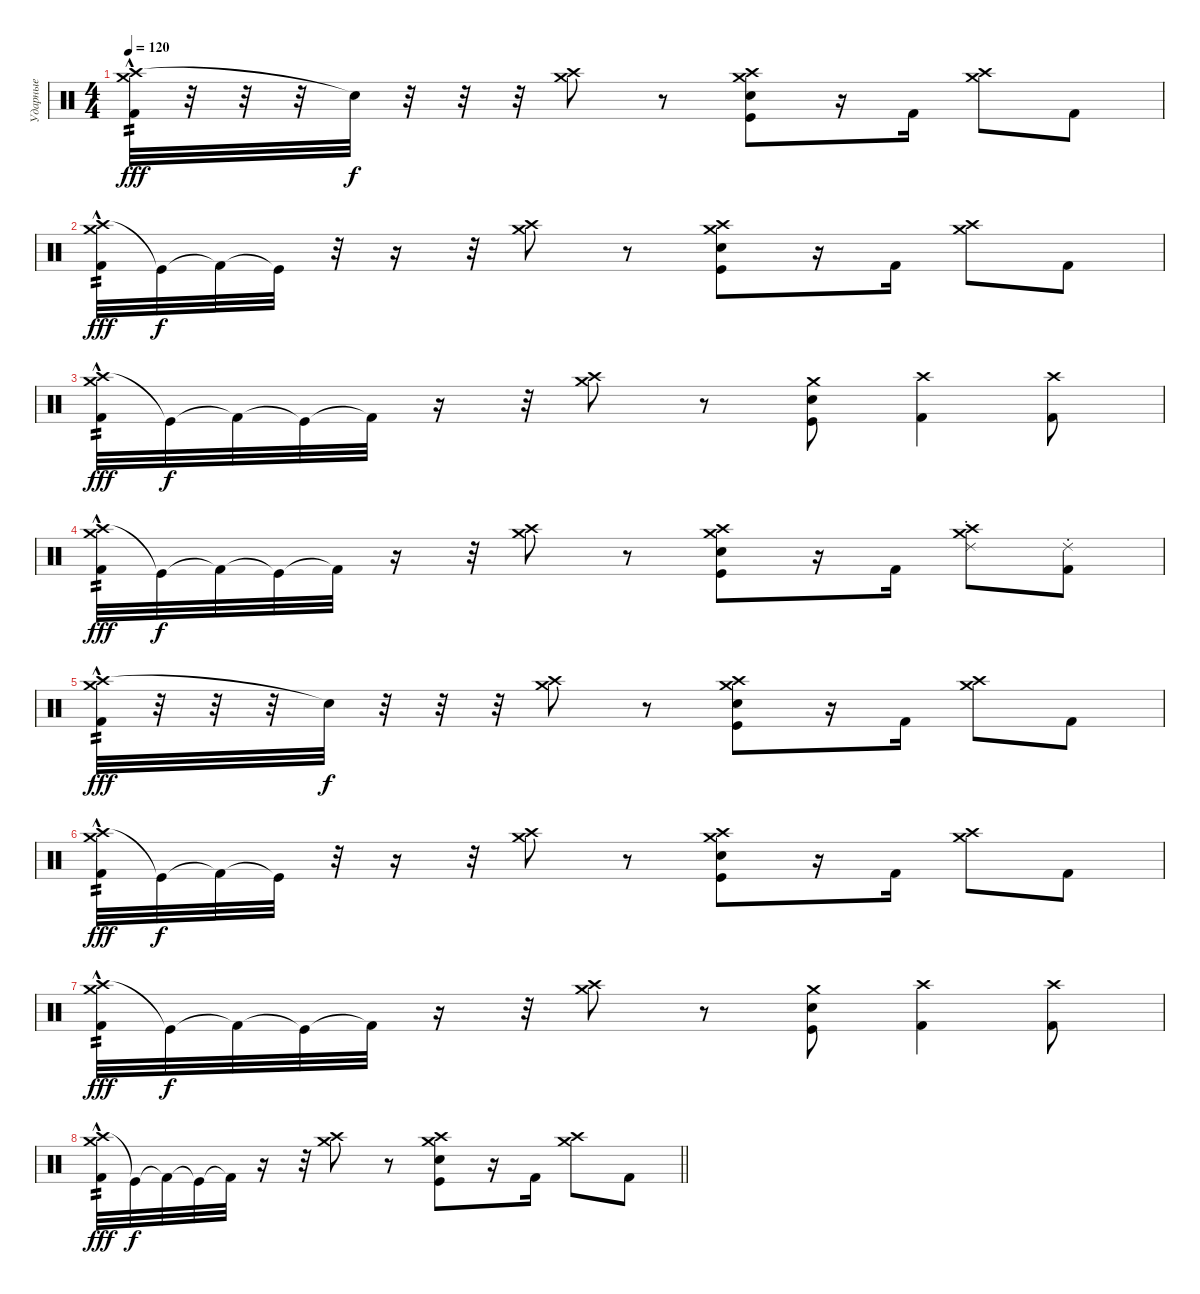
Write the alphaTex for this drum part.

\track ("Ударные" "Ударные") {instrument percussion}
\staff {score}
\articulation defaults
\ts (4 4)
\tempo 120
\clef neutral
\ks c
("Crash high (hit)"{hac} "Crash medium (hit)" "Kick (hit) 2").32{tp 2 dy fff} r.32 r.32 r.32 "Snare (hit)"{t}.32{dy f} r.32 r.32 r.32 ("Crash high (hit)" "Crash medium (hit)").8 r.8 ("Crash high (hit)" "Crash medium (hit)" "Electric Snare (hit)" "Kick (hit)").8 r.16 "Kick (hit) 2".16 ("Crash high (hit)" "Crash medium (hit)").8 "Kick (hit) 2".8 |
("Crash high (hit)"{hac} "Crash medium (hit)" "Kick (hit) 2").32{tp 2 dy fff} "Kick (hit)"{t}.32{dy f} "Kick (hit) 2"{t}.32 "Kick (hit)"{t}.32 r.32 r.16 r.32 ("Crash high (hit)" "Crash medium (hit)").8 r.8 ("Crash medium (hit)" "Crash high (hit)" "Electric Snare (hit)" "Kick (hit)").8 r.16 "Kick (hit) 2".16 ("Crash medium (hit)" "Crash high (hit)").8 "Kick (hit) 2".8 |
("Crash high (hit)"{hac} "Crash medium (hit)" "Kick (hit) 2").32{tp 2 dy fff} "Kick (hit)"{t}.32{dy f} "Kick (hit) 2"{t}.32 "Kick (hit)"{t}.32 "Kick (hit) 2"{t}.32 r.16 r.32 ("Crash medium (hit)" "Crash high (hit)").8 r.8 ("Crash medium (hit)" "Electric Snare (hit)" "Kick (hit)").8 ("Crash high (hit)" "Kick (hit) 2").4 ("Crash high (hit)" "Kick (hit) 2").8 |
("Crash high (hit)"{hac} "Crash medium (hit)" "Kick (hit) 2").32{tp 2 dy fff} "Kick (hit)"{t}.32{dy f} "Kick (hit) 2"{t}.32 "Kick (hit)"{t}.32 "Kick (hit) 2"{t}.32 r.16 r.32 ("Crash high (hit)" "Crash medium (hit)").8 r.8 ("Crash high (hit)" "Crash medium (hit)" "Electric Snare (hit)" "Kick (hit)").8 r.16 "Kick (hit) 2".16 ("Crash high (hit)" "Crash medium (hit)" "Ride (choke) 2").8 ("Ride (choke) 2" "Kick (hit) 2").8 |
("Crash high (hit)"{hac} "Crash medium (hit)" "Kick (hit) 2").32{tp 2 dy fff} r.32 r.32 r.32 "Snare (hit)"{t}.32{dy f} r.32 r.32 r.32 ("Crash high (hit)" "Crash medium (hit)").8 r.8 ("Crash high (hit)" "Crash medium (hit)" "Electric Snare (hit)" "Kick (hit)").8 r.16 "Kick (hit) 2".16 ("Crash high (hit)" "Crash medium (hit)").8 "Kick (hit) 2".8 |
("Crash high (hit)"{hac} "Crash medium (hit)" "Kick (hit) 2").32{tp 2 dy fff} "Kick (hit)"{t}.32{dy f} "Kick (hit) 2"{t}.32 "Kick (hit)"{t}.32 r.32 r.16 r.32 ("Crash high (hit)" "Crash medium (hit)").8 r.8 ("Crash medium (hit)" "Crash high (hit)" "Electric Snare (hit)" "Kick (hit)").8 r.16 "Kick (hit) 2".16 ("Crash medium (hit)" "Crash high (hit)").8 "Kick (hit) 2".8 |
("Crash high (hit)"{hac} "Crash medium (hit)" "Kick (hit) 2").32{tp 2 dy fff} "Kick (hit)"{t}.32{dy f} "Kick (hit) 2"{t}.32 "Kick (hit)"{t}.32 "Kick (hit) 2"{t}.32 r.16 r.32 ("Crash medium (hit)" "Crash high (hit)").8 r.8 ("Crash medium (hit)" "Electric Snare (hit)" "Kick (hit)").8 ("Crash high (hit)" "Kick (hit) 2").4 ("Crash high (hit)" "Kick (hit) 2").8 |
\barLineRight lightlight
("Crash high (hit)"{hac} "Crash medium (hit)" "Kick (hit) 2").32{tp 2 dy fff} "Kick (hit)"{t}.32{dy f} "Kick (hit) 2"{t}.32 "Kick (hit)"{t}.32 "Kick (hit) 2"{t}.32 r.16 r.32 ("Crash high (hit)" "Crash medium (hit)").8 r.8 ("Crash high (hit)" "Crash medium (hit)" "Electric Snare (hit)" "Kick (hit)").8 r.16 "Kick (hit) 2".16 ("Crash high (hit)" "Crash medium (hit)").8 "Kick (hit) 2".8
